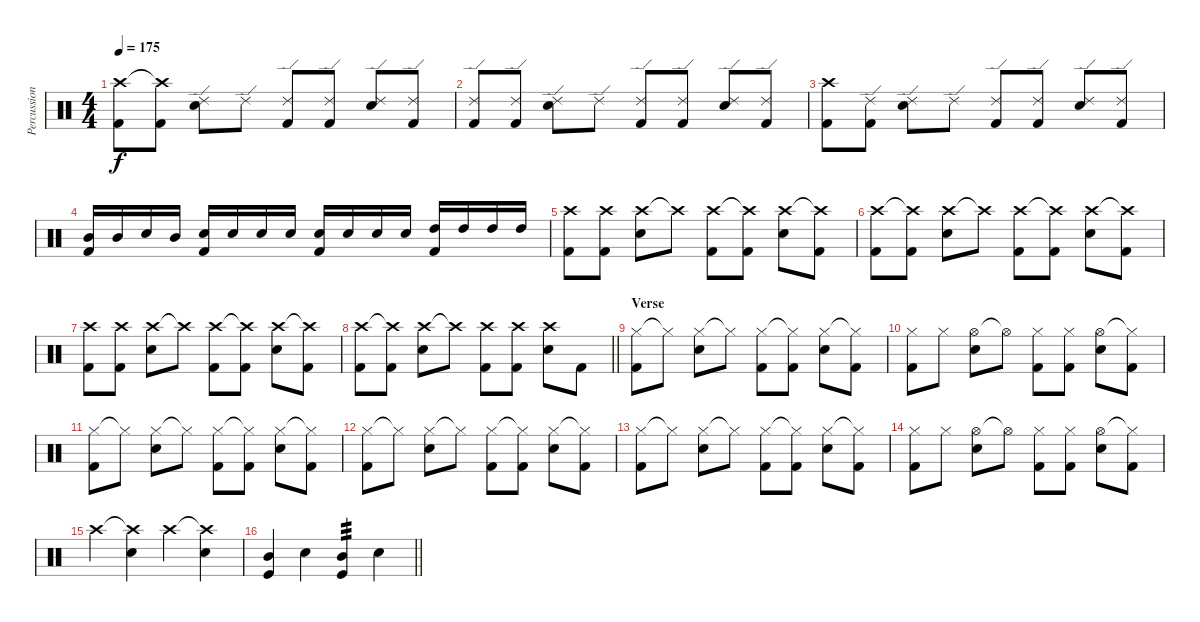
\track ("Percussion" "Percussion") {instrument percussion}
\staff {score}
\articulation defaults
\ts (4 4)
\tempo 175
\clef neutral
\ks c
("Crash high (hit)" "Kick (hit) 2").8{dy f} ("Crash high (hit)"{t} "Kick (hit) 2").8 ("Ride (edge) 2" "Snare (hit) 2").8 "Ride (edge) 2".8 ("Ride (edge) 2" "Kick (hit) 2").8 ("Ride (edge) 2" "Kick (hit) 2").8 ("Ride (edge) 2" "Snare (hit) 2").8 ("Ride (edge) 2" "Kick (hit) 2").8 |
("Ride (edge) 2" "Kick (hit) 2").8 ("Ride (edge) 2" "Kick (hit) 2").8 ("Ride (edge) 2" "Snare (hit) 2").8 "Ride (edge) 2".8 ("Ride (edge) 2" "Kick (hit) 2").8 ("Ride (edge) 2" "Kick (hit) 2").8 ("Ride (edge) 2" "Snare (hit) 2").8 ("Ride (edge) 2" "Kick (hit) 2").8 |
("Crash high (hit)" "Kick (hit) 2").8 ("Ride (edge) 2" "Kick (hit) 2").8 ("Ride (edge) 2" "Snare (hit) 2").8 "Ride (edge) 2".8 ("Ride (edge) 2" "Kick (hit) 2").8 ("Ride (edge) 2" "Kick (hit) 2").8 ("Ride (edge) 2" "Snare (hit) 2").8 ("Ride (edge) 2" "Kick (hit) 2").8 |
("Mid Tom (hit)" "Kick (hit) 2").16 "Mid Tom (hit)".16 "Snare (hit) 2".16 "Mid Tom (hit)".16 ("Snare (hit) 2" "Kick (hit) 2").16 "Snare (hit) 2".16 "Snare (hit) 2".16 "Snare (hit) 2".16 ("Snare (hit) 2" "Kick (hit) 2").16 "Snare (hit) 2".16 "Snare (hit) 2".16 "Snare (hit) 2".16 ("High Tom (hit)" "Kick (hit) 2").16 "High Tom (hit)".16 "High Tom (hit)".16 "High Tom (hit)".16 |
("Crash high (hit)" "Kick (hit) 2").8 ("Crash high (hit)" "Kick (hit) 2").8 ("Crash high (hit)" "Snare (hit) 2").8 "Crash high (hit)"{t}.8 ("Crash high (hit)" "Kick (hit) 2").8 ("Crash high (hit)"{t} "Kick (hit) 2").8 ("Crash high (hit)" "Snare (hit) 2").8 ("Crash high (hit)"{t} "Kick (hit) 2").8 |
("Crash high (hit)" "Kick (hit) 2").8 ("Crash high (hit)"{t} "Kick (hit) 2").8 ("Crash high (hit)" "Snare (hit) 2").8 "Crash high (hit)"{t}.8 ("Crash high (hit)" "Kick (hit) 2").8 ("Crash high (hit)"{t} "Kick (hit) 2").8 ("Crash high (hit)" "Snare (hit) 2").8 ("Crash high (hit)"{t} "Kick (hit) 2").8 |
("Crash high (hit)" "Kick (hit) 2").8 ("Crash high (hit)" "Kick (hit) 2").8 ("Crash high (hit)" "Snare (hit) 2").8 "Crash high (hit)"{t}.8 ("Crash high (hit)" "Kick (hit) 2").8 ("Crash high (hit)"{t} "Kick (hit) 2").8 ("Crash high (hit)" "Snare (hit) 2").8 ("Crash high (hit)"{t} "Kick (hit) 2").8 |
\barLineRight lightlight
("Crash high (hit)" "Kick (hit) 2").8 ("Crash high (hit)"{t} "Kick (hit) 2").8 ("Crash high (hit)" "Snare (hit) 2").8 "Crash high (hit)"{t}.8 ("Crash high (hit)" "Kick (hit) 2").8 ("Crash high (hit)" "Kick (hit) 2").8 ("Crash high (hit)" "Snare (hit) 2").8 "Kick (hit) 2".8 |
\section ("" "Verse")
("Hi-Hat (closed)" "Kick (hit) 2").8 "Hi-Hat (closed)"{t}.8 ("Hi-Hat (closed)" "Snare (hit) 2").8 "Hi-Hat (closed)"{t}.8 ("Hi-Hat (closed)" "Kick (hit) 2").8 ("Hi-Hat (closed)"{t} "Kick (hit) 2").8 ("Hi-Hat (closed)" "Snare (hit) 2").8 ("Hi-Hat (closed)"{t} "Kick (hit) 2").8 |
("Hi-Hat (closed)" "Kick (hit) 2").8 "Hi-Hat (closed)".8 ("Hi-Hat (open)" "Snare (hit) 2").8 "Hi-Hat (open)"{t}.8 ("Hi-Hat (closed)" "Kick (hit) 2").8 ("Hi-Hat (closed)" "Kick (hit) 2").8 ("Hi-Hat (open)" "Snare (hit) 2").8 ("Hi-Hat (closed)"{t} "Kick (hit) 2").8 |
("Hi-Hat (closed)" "Kick (hit) 2").8 "Hi-Hat (closed)"{t}.8 ("Hi-Hat (closed)" "Snare (hit) 2").8 "Hi-Hat (closed)"{t}.8 ("Hi-Hat (closed)" "Kick (hit) 2").8 ("Hi-Hat (closed)"{t} "Kick (hit) 2").8 ("Hi-Hat (closed)" "Snare (hit) 2").8 ("Hi-Hat (closed)"{t} "Kick (hit) 2").8 |
("Hi-Hat (closed)" "Kick (hit) 2").8 "Hi-Hat (closed)"{t}.8 ("Hi-Hat (closed)" "Snare (hit) 2").8 "Hi-Hat (closed)"{t}.8 ("Hi-Hat (closed)" "Kick (hit) 2").8 ("Hi-Hat (closed)"{t} "Kick (hit) 2").8 ("Hi-Hat (closed)" "Snare (hit) 2").8 ("Hi-Hat (closed)"{t} "Kick (hit) 2").8 |
("Hi-Hat (closed)" "Kick (hit) 2").8 "Hi-Hat (closed)"{t}.8 ("Hi-Hat (closed)" "Snare (hit) 2").8 "Hi-Hat (closed)"{t}.8 ("Hi-Hat (closed)" "Kick (hit) 2").8 ("Hi-Hat (closed)"{t} "Kick (hit) 2").8 ("Hi-Hat (closed)" "Snare (hit) 2").8 ("Hi-Hat (closed)"{t} "Kick (hit) 2").8 |
("Hi-Hat (closed)" "Kick (hit) 2").8 "Hi-Hat (closed)".8 ("Hi-Hat (open)" "Snare (hit) 2").8 "Hi-Hat (open)"{t}.8 ("Hi-Hat (closed)" "Kick (hit) 2").8 ("Hi-Hat (closed)" "Kick (hit) 2").8 ("Hi-Hat (open)" "Snare (hit) 2").8 ("Hi-Hat (closed)"{t} "Kick (hit) 2").8 |
"Crash high (hit)".4 ("Crash high (hit)"{t} "Snare (hit) 2").4 "Crash high (hit)".4 ("Crash high (hit)"{t} "Snare (hit) 2").4 |
\barLineRight lightlight
("Mid Tom (hit)" "Kick (hit)").4 "Snare (hit) 2".4 ("Mid Tom (hit)" "Kick (hit)").4{tp 3} "Snare (hit) 2".4
